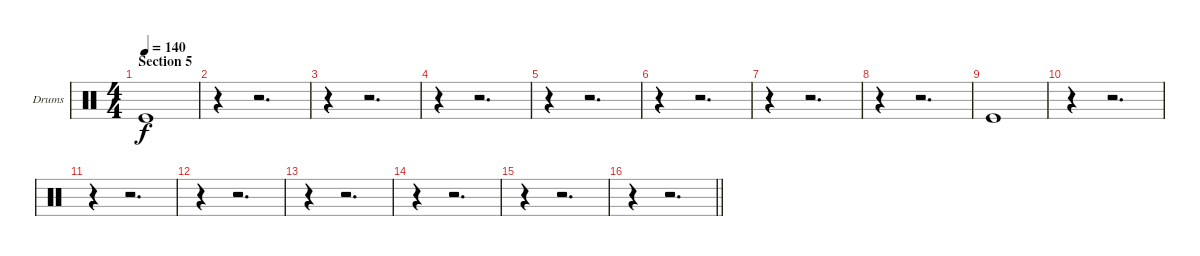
\bracketExtendMode groupsimilarinstruments
\firstSystemTrackNameOrientation horizontal
\otherSystemsTrackNameOrientation horizontal
\track ("Drumkit" "Drums") {instrument percussion}
\staff {score}
\articulation defaults
\ts (4 4)
\section ("" "Section 5")
\tempo 140
\clef neutral
\ks c "Kick (hit)".1{dy f}
|
r.4 r.2{d} |
r.4 r.2{d} |
r.4 r.2{d} |
r.4 r.2{d} |
r.4 r.2{d} |
r.4 r.2{d} |
r.4 r.2{d} |
"Kick (hit)".1 |
r.4 r.2{d} |
r.4 r.2{d} |
r.4 r.2{d} |
r.4 r.2{d} |
r.4 r.2{d} |
r.4 r.2{d} |
\barLineRight lightlight
r.4 r.2{d}
